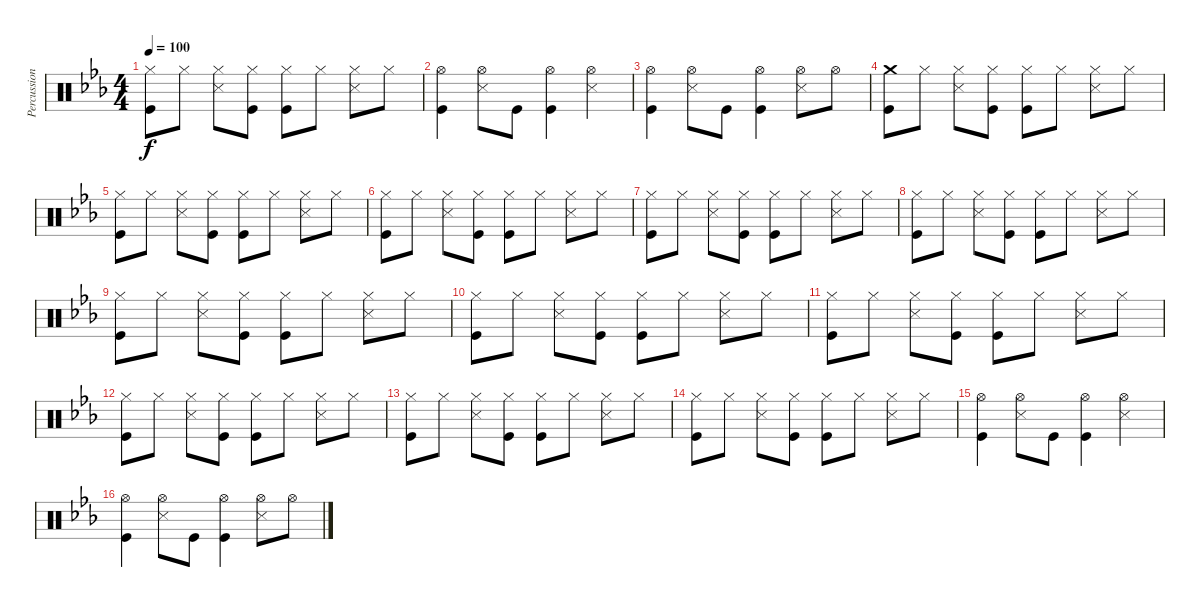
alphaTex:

\track ("Percussion" "Percussion") {instrument percussion}
\staff {score}
\articulation defaults
\ts (4 4)
\tempo 100
\clef neutral
\ks eb
("Hi-Hat (closed)" "Kick (hit)").8{dy f} "Hi-Hat (closed)".8 ("Hi-Hat (closed)" "Snare (side stick) 3").8 ("Hi-Hat (closed)" "Kick (hit)").8 ("Hi-Hat (closed)" "Kick (hit)").8 "Hi-Hat (closed)".8 ("Hi-Hat (closed)" "Snare (side stick) 3").8 "Hi-Hat (closed)".8 |
("Hi-Hat (open)" "Kick (hit)").4 ("Hi-Hat (open)" "Snare (side stick) 3").8 "Kick (hit)".8 ("Hi-Hat (open)" "Kick (hit)").4 ("Hi-Hat (open)" "Snare (side stick) 3").4 |
("Hi-Hat (open)" "Kick (hit)").4 ("Hi-Hat (open)" "Snare (side stick) 3").8 "Kick (hit)".8 ("Hi-Hat (open)" "Kick (hit)").4 ("Hi-Hat (open)" "Snare (side stick) 3").8 "Hi-Hat (open)".8 |
("Crash medium (hit)" "Kick (hit)").8 "Hi-Hat (closed)".8 ("Hi-Hat (closed)" "Snare (side stick) 3").8 ("Hi-Hat (closed)" "Kick (hit)").8 ("Hi-Hat (closed)" "Kick (hit)").8 "Hi-Hat (closed)".8 ("Hi-Hat (closed)" "Snare (side stick) 3").8 "Hi-Hat (closed)".8 |
("Hi-Hat (closed)" "Kick (hit)").8 "Hi-Hat (closed)".8 ("Hi-Hat (closed)" "Snare (side stick) 3").8 ("Hi-Hat (closed)" "Kick (hit)").8 ("Hi-Hat (closed)" "Kick (hit)").8 "Hi-Hat (closed)".8 ("Hi-Hat (closed)" "Snare (side stick) 3").8 "Hi-Hat (closed)".8 |
("Hi-Hat (closed)" "Kick (hit)").8 "Hi-Hat (closed)".8 ("Hi-Hat (closed)" "Snare (side stick) 3").8 ("Hi-Hat (closed)" "Kick (hit)").8 ("Hi-Hat (closed)" "Kick (hit)").8 "Hi-Hat (closed)".8 ("Hi-Hat (closed)" "Snare (side stick) 3").8 "Hi-Hat (closed)".8 |
("Hi-Hat (closed)" "Kick (hit)").8 "Hi-Hat (closed)".8 ("Hi-Hat (closed)" "Snare (side stick) 3").8 ("Hi-Hat (closed)" "Kick (hit)").8 ("Hi-Hat (closed)" "Kick (hit)").8 "Hi-Hat (closed)".8 ("Hi-Hat (closed)" "Snare (side stick) 3").8 "Hi-Hat (closed)".8 |
("Hi-Hat (closed)" "Kick (hit)").8 "Hi-Hat (closed)".8 ("Hi-Hat (closed)" "Snare (side stick) 3").8 ("Hi-Hat (closed)" "Kick (hit)").8 ("Hi-Hat (closed)" "Kick (hit)").8 "Hi-Hat (closed)".8 ("Hi-Hat (closed)" "Snare (side stick) 3").8 "Hi-Hat (closed)".8 |
("Hi-Hat (closed)" "Kick (hit)").8 "Hi-Hat (closed)".8 ("Hi-Hat (closed)" "Snare (side stick) 3").8 ("Hi-Hat (closed)" "Kick (hit)").8 ("Hi-Hat (closed)" "Kick (hit)").8 "Hi-Hat (closed)".8 ("Hi-Hat (closed)" "Snare (side stick) 3").8 "Hi-Hat (closed)".8 |
("Hi-Hat (closed)" "Kick (hit)").8 "Hi-Hat (closed)".8 ("Hi-Hat (closed)" "Snare (side stick) 3").8 ("Hi-Hat (closed)" "Kick (hit)").8 ("Hi-Hat (closed)" "Kick (hit)").8 "Hi-Hat (closed)".8 ("Hi-Hat (closed)" "Snare (side stick) 3").8 "Hi-Hat (closed)".8 |
("Hi-Hat (closed)" "Kick (hit)").8 "Hi-Hat (closed)".8 ("Hi-Hat (closed)" "Snare (side stick) 3").8 ("Hi-Hat (closed)" "Kick (hit)").8 ("Hi-Hat (closed)" "Kick (hit)").8 "Hi-Hat (closed)".8 ("Hi-Hat (closed)" "Snare (side stick) 3").8 "Hi-Hat (closed)".8 |
("Hi-Hat (closed)" "Kick (hit)").8 "Hi-Hat (closed)".8 ("Hi-Hat (closed)" "Snare (side stick) 3").8 ("Hi-Hat (closed)" "Kick (hit)").8 ("Hi-Hat (closed)" "Kick (hit)").8 "Hi-Hat (closed)".8 ("Hi-Hat (closed)" "Snare (side stick) 3").8 "Hi-Hat (closed)".8 |
("Hi-Hat (closed)" "Kick (hit)").8 "Hi-Hat (closed)".8 ("Hi-Hat (closed)" "Snare (side stick) 3").8 ("Hi-Hat (closed)" "Kick (hit)").8 ("Hi-Hat (closed)" "Kick (hit)").8 "Hi-Hat (closed)".8 ("Hi-Hat (closed)" "Snare (side stick) 3").8 "Hi-Hat (closed)".8 |
("Hi-Hat (closed)" "Kick (hit)").8 "Hi-Hat (closed)".8 ("Hi-Hat (closed)" "Snare (side stick) 3").8 ("Hi-Hat (closed)" "Kick (hit)").8 ("Hi-Hat (closed)" "Kick (hit)").8 "Hi-Hat (closed)".8 ("Hi-Hat (closed)" "Snare (side stick) 3").8 "Hi-Hat (closed)".8 |
("Hi-Hat (open)" "Kick (hit)").4 ("Hi-Hat (open)" "Snare (side stick) 3").8 "Kick (hit)".8 ("Hi-Hat (open)" "Kick (hit)").4 ("Hi-Hat (open)" "Snare (side stick) 3").4 |
("Hi-Hat (open)" "Kick (hit)").4 ("Hi-Hat (open)" "Snare (side stick) 3").8 "Kick (hit)".8 ("Hi-Hat (open)" "Kick (hit)").4 ("Hi-Hat (open)" "Snare (side stick) 3").8 "Hi-Hat (open)".8
